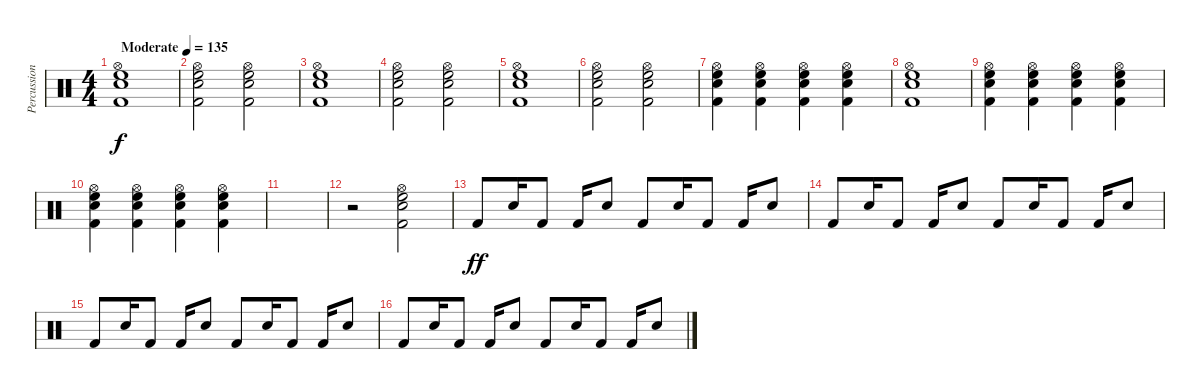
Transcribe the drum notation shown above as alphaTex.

\track ("Percussion" "Percussion") {instrument percussion}
\staff {score}
\articulation defaults
\ts (4 4)
\tempo (135 "Moderate")
\clef neutral
\ks c
("Hi-Hat (open)" "Electric Snare (hit)" "Kick (hit) 2" "High Floor Tom (hit)").1{dy f} |
("Hi-Hat (open)" "Electric Snare (hit)" "Kick (hit) 2" "High Floor Tom (hit)").2 ("Hi-Hat (open)" "Electric Snare (hit)" "Kick (hit) 2" "High Floor Tom (hit)").2 |
("Hi-Hat (open)" "Electric Snare (hit)" "Kick (hit) 2" "High Floor Tom (hit)").1 |
("Hi-Hat (open)" "Electric Snare (hit)" "Kick (hit) 2" "High Floor Tom (hit)").2 ("Hi-Hat (open)" "Electric Snare (hit)" "Kick (hit) 2" "High Floor Tom (hit)").2 |
("Hi-Hat (open)" "Electric Snare (hit)" "Kick (hit) 2" "High Floor Tom (hit)").1 |
("Hi-Hat (open)" "Electric Snare (hit)" "Kick (hit) 2" "High Floor Tom (hit)").2 ("Hi-Hat (open)" "Electric Snare (hit)" "Kick (hit) 2" "High Floor Tom (hit)").2 |
("Hi-Hat (open)" "Electric Snare (hit)" "Kick (hit) 2" "High Floor Tom (hit)").4 ("Hi-Hat (open)" "Electric Snare (hit)" "Kick (hit) 2" "High Floor Tom (hit)").4 ("Hi-Hat (open)" "Electric Snare (hit)" "Kick (hit) 2" "High Floor Tom (hit)").4 ("Hi-Hat (open)" "Electric Snare (hit)" "Kick (hit) 2" "High Floor Tom (hit)").4 |
("Hi-Hat (open)" "Electric Snare (hit)" "Kick (hit) 2" "High Floor Tom (hit)").1 |
("Hi-Hat (open)" "Electric Snare (hit)" "Kick (hit) 2" "High Floor Tom (hit)").4 ("Hi-Hat (open)" "Electric Snare (hit)" "Kick (hit) 2" "High Floor Tom (hit)").4 ("Hi-Hat (open)" "Electric Snare (hit)" "Kick (hit) 2" "High Floor Tom (hit)").4 ("Hi-Hat (open)" "Electric Snare (hit)" "Kick (hit) 2" "High Floor Tom (hit)").4 |
("Hi-Hat (open)" "Electric Snare (hit)" "Kick (hit) 2" "High Floor Tom (hit)").4 ("Hi-Hat (open)" "Electric Snare (hit)" "Kick (hit) 2" "High Floor Tom (hit)").4 ("Hi-Hat (open)" "Electric Snare (hit)" "Kick (hit) 2" "High Floor Tom (hit)").4 ("Hi-Hat (open)" "Electric Snare (hit)" "Kick (hit) 2" "High Floor Tom (hit)").4 |
|
r.2 ("Hi-Hat (open)" "Electric Snare (hit)" "Kick (hit) 2" "High Floor Tom (hit)").2 |
"Kick (hit) 2".8{dy ff} "Electric Snare (hit)".16 "Kick (hit) 2".8 "Kick (hit) 2".16 "Electric Snare (hit)".8 "Kick (hit) 2".8 "Electric Snare (hit)".16 "Kick (hit) 2".8 "Kick (hit) 2".16 "Electric Snare (hit)".8 |
"Kick (hit) 2".8 "Electric Snare (hit)".16 "Kick (hit) 2".8 "Kick (hit) 2".16 "Electric Snare (hit)".8 "Kick (hit) 2".8 "Electric Snare (hit)".16 "Kick (hit) 2".8 "Kick (hit) 2".16 "Electric Snare (hit)".8 |
"Kick (hit) 2".8 "Electric Snare (hit)".16 "Kick (hit) 2".8 "Kick (hit) 2".16 "Electric Snare (hit)".8 "Kick (hit) 2".8 "Electric Snare (hit)".16 "Kick (hit) 2".8 "Kick (hit) 2".16 "Electric Snare (hit)".8 |
"Kick (hit) 2".8 "Electric Snare (hit)".16 "Kick (hit) 2".8 "Kick (hit) 2".16 "Electric Snare (hit)".8 "Kick (hit) 2".8 "Electric Snare (hit)".16 "Kick (hit) 2".8 "Kick (hit) 2".16 "Electric Snare (hit)".8
